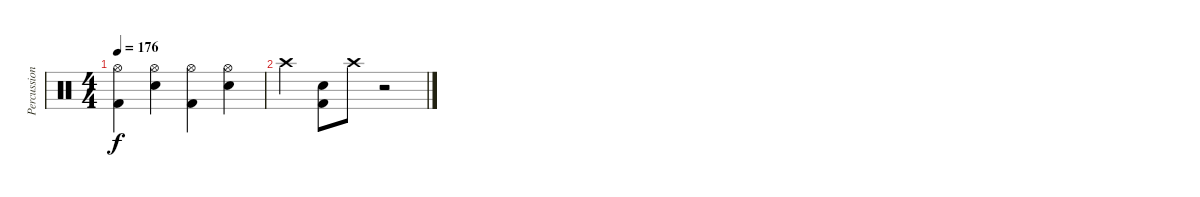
\track ("Percussion" "Percussion") {instrument percussion}
\staff {score}
\articulation defaults
\ts (4 4)
\tempo 176
\clef neutral
\ks c
("Hi-Hat (open)" "Kick (hit) 2").4{dy f} ("Hi-Hat (open)" "Snare (hit) 2").4 ("Hi-Hat (open)" "Kick (hit) 2").4 ("Hi-Hat (open)" "Snare (hit) 2").4 |
"Crash high (hit)".4 ("Snare (hit) 2" "Kick (hit) 2").8 "Crash high (hit)".8 r.2
